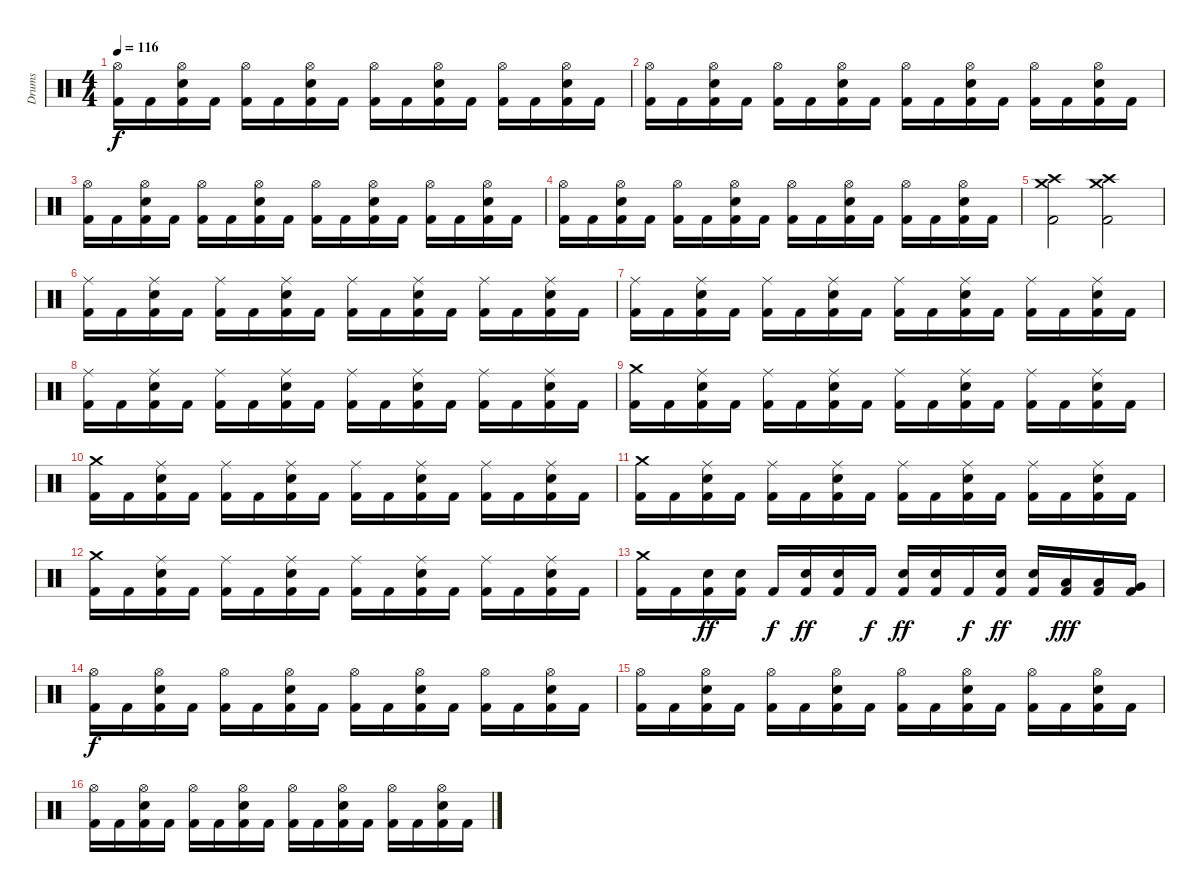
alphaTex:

\track ("Drums" "Drums") {instrument percussion}
\staff {score}
\articulation defaults
\ts (4 4)
\tempo 116
\clef neutral
\ks c
("Hi-Hat (open)" "Kick (hit) 2").16{dy f} "Kick (hit) 2".16 ("Hi-Hat (open)" "Electric Snare (hit)" "Kick (hit) 2").16 "Kick (hit) 2".16 ("Hi-Hat (open)" "Kick (hit) 2").16 "Kick (hit) 2".16 ("Hi-Hat (open)" "Electric Snare (hit)" "Kick (hit) 2").16 "Kick (hit) 2".16 ("Hi-Hat (open)" "Kick (hit) 2").16 "Kick (hit) 2".16 ("Hi-Hat (open)" "Electric Snare (hit)" "Kick (hit) 2").16 "Kick (hit) 2".16 ("Hi-Hat (open)" "Kick (hit) 2").16 "Kick (hit) 2".16 ("Hi-Hat (open)" "Electric Snare (hit)" "Kick (hit) 2").16 "Kick (hit) 2".16 |
("Hi-Hat (open)" "Kick (hit) 2").16 "Kick (hit) 2".16 ("Hi-Hat (open)" "Electric Snare (hit)" "Kick (hit) 2").16 "Kick (hit) 2".16 ("Hi-Hat (open)" "Kick (hit) 2").16 "Kick (hit) 2".16 ("Hi-Hat (open)" "Electric Snare (hit)" "Kick (hit) 2").16 "Kick (hit) 2".16 ("Hi-Hat (open)" "Kick (hit) 2").16 "Kick (hit) 2".16 ("Hi-Hat (open)" "Electric Snare (hit)" "Kick (hit) 2").16 "Kick (hit) 2".16 ("Hi-Hat (open)" "Kick (hit) 2").16 "Kick (hit) 2".16 ("Hi-Hat (open)" "Electric Snare (hit)" "Kick (hit) 2").16 "Kick (hit) 2".16 |
("Hi-Hat (open)" "Kick (hit) 2").16 "Kick (hit) 2".16 ("Hi-Hat (open)" "Electric Snare (hit)" "Kick (hit) 2").16 "Kick (hit) 2".16 ("Hi-Hat (open)" "Kick (hit) 2").16 "Kick (hit) 2".16 ("Hi-Hat (open)" "Electric Snare (hit)" "Kick (hit) 2").16 "Kick (hit) 2".16 ("Hi-Hat (open)" "Kick (hit) 2").16 "Kick (hit) 2".16 ("Hi-Hat (open)" "Electric Snare (hit)" "Kick (hit) 2").16 "Kick (hit) 2".16 ("Hi-Hat (open)" "Kick (hit) 2").16 "Kick (hit) 2".16 ("Hi-Hat (open)" "Electric Snare (hit)" "Kick (hit) 2").16 "Kick (hit) 2".16 |
("Hi-Hat (open)" "Kick (hit) 2").16 "Kick (hit) 2".16 ("Hi-Hat (open)" "Electric Snare (hit)" "Kick (hit) 2").16 "Kick (hit) 2".16 ("Hi-Hat (open)" "Kick (hit) 2").16 "Kick (hit) 2".16 ("Hi-Hat (open)" "Electric Snare (hit)" "Kick (hit) 2").16 "Kick (hit) 2".16 ("Hi-Hat (open)" "Kick (hit) 2").16 "Kick (hit) 2".16 ("Hi-Hat (open)" "Electric Snare (hit)" "Kick (hit) 2").16 "Kick (hit) 2".16 ("Hi-Hat (open)" "Kick (hit) 2").16 "Kick (hit) 2".16 ("Hi-Hat (open)" "Electric Snare (hit)" "Kick (hit) 2").16 "Kick (hit) 2".16 |
("Crash medium (hit)" "Crash high (hit)" "Kick (hit) 2").2 ("Crash medium (hit)" "Crash high (hit)" "Kick (hit) 2").2 |
("Ride (middle)" "Kick (hit) 2").16 "Kick (hit) 2".16 ("Ride (middle)" "Electric Snare (hit)" "Kick (hit) 2").16 "Kick (hit) 2".16 ("Ride (middle)" "Kick (hit) 2").16 "Kick (hit) 2".16 ("Ride (middle)" "Electric Snare (hit)" "Kick (hit) 2").16 "Kick (hit) 2".16 ("Ride (middle)" "Kick (hit) 2").16 "Kick (hit) 2".16 ("Ride (middle)" "Electric Snare (hit)" "Kick (hit) 2").16 "Kick (hit) 2".16 ("Ride (middle)" "Kick (hit) 2").16 "Kick (hit) 2".16 ("Ride (middle)" "Electric Snare (hit)" "Kick (hit) 2").16 "Kick (hit) 2".16 |
("Ride (middle)" "Kick (hit) 2").16 "Kick (hit) 2".16 ("Ride (middle)" "Electric Snare (hit)" "Kick (hit) 2").16 "Kick (hit) 2".16 ("Ride (middle)" "Kick (hit) 2").16 "Kick (hit) 2".16 ("Ride (middle)" "Electric Snare (hit)" "Kick (hit) 2").16 "Kick (hit) 2".16 ("Ride (middle)" "Kick (hit) 2").16 "Kick (hit) 2".16 ("Ride (middle)" "Electric Snare (hit)" "Kick (hit) 2").16 "Kick (hit) 2".16 ("Ride (middle)" "Kick (hit) 2").16 "Kick (hit) 2".16 ("Ride (middle)" "Electric Snare (hit)" "Kick (hit) 2").16 "Kick (hit) 2".16 |
("Ride (middle)" "Kick (hit) 2").16 "Kick (hit) 2".16 ("Ride (middle)" "Electric Snare (hit)" "Kick (hit) 2").16 "Kick (hit) 2".16 ("Ride (middle)" "Kick (hit) 2").16 "Kick (hit) 2".16 ("Ride (middle)" "Electric Snare (hit)" "Kick (hit) 2").16 "Kick (hit) 2".16 ("Ride (middle)" "Kick (hit) 2").16 "Kick (hit) 2".16 ("Ride (middle)" "Electric Snare (hit)" "Kick (hit) 2").16 "Kick (hit) 2".16 ("Ride (middle)" "Kick (hit) 2").16 "Kick (hit) 2".16 ("Ride (middle)" "Electric Snare (hit)" "Kick (hit) 2").16 "Kick (hit) 2".16 |
("Crash medium (hit)" "Kick (hit) 2").16 "Kick (hit) 2".16 ("Ride (middle)" "Electric Snare (hit)" "Kick (hit) 2").16 "Kick (hit) 2".16 ("Ride (middle)" "Kick (hit) 2").16 "Kick (hit) 2".16 ("Ride (middle)" "Electric Snare (hit)" "Kick (hit) 2").16 "Kick (hit) 2".16 ("Ride (middle)" "Kick (hit) 2").16 "Kick (hit) 2".16 ("Ride (middle)" "Electric Snare (hit)" "Kick (hit) 2").16 "Kick (hit) 2".16 ("Ride (middle)" "Kick (hit) 2").16 "Kick (hit) 2".16 ("Ride (middle)" "Electric Snare (hit)" "Kick (hit) 2").16 "Kick (hit) 2".16 |
("Crash medium (hit)" "Kick (hit) 2").16 "Kick (hit) 2".16 ("Ride (middle)" "Electric Snare (hit)" "Kick (hit) 2").16 "Kick (hit) 2".16 ("Ride (middle)" "Kick (hit) 2").16 "Kick (hit) 2".16 ("Ride (middle)" "Electric Snare (hit)" "Kick (hit) 2").16 "Kick (hit) 2".16 ("Ride (middle)" "Kick (hit) 2").16 "Kick (hit) 2".16 ("Ride (middle)" "Electric Snare (hit)" "Kick (hit) 2").16 "Kick (hit) 2".16 ("Ride (middle)" "Kick (hit) 2").16 "Kick (hit) 2".16 ("Ride (middle)" "Electric Snare (hit)" "Kick (hit) 2").16 "Kick (hit) 2".16 |
("Crash medium (hit)" "Kick (hit) 2").16 "Kick (hit) 2".16 ("Ride (middle)" "Electric Snare (hit)" "Kick (hit) 2").16 "Kick (hit) 2".16 ("Ride (middle)" "Kick (hit) 2").16 "Kick (hit) 2".16 ("Ride (middle)" "Electric Snare (hit)" "Kick (hit) 2").16 "Kick (hit) 2".16 ("Ride (middle)" "Kick (hit) 2").16 "Kick (hit) 2".16 ("Ride (middle)" "Electric Snare (hit)" "Kick (hit) 2").16 "Kick (hit) 2".16 ("Ride (middle)" "Kick (hit) 2").16 "Kick (hit) 2".16 ("Ride (middle)" "Electric Snare (hit)" "Kick (hit) 2").16 "Kick (hit) 2".16 |
("Crash medium (hit)" "Kick (hit) 2").16 "Kick (hit) 2".16 ("Ride (middle)" "Electric Snare (hit)" "Kick (hit) 2").16 "Kick (hit) 2".16 ("Ride (middle)" "Kick (hit) 2").16 "Kick (hit) 2".16 ("Ride (middle)" "Electric Snare (hit)" "Kick (hit) 2").16 "Kick (hit) 2".16 ("Ride (middle)" "Kick (hit) 2").16 "Kick (hit) 2".16 ("Ride (middle)" "Electric Snare (hit)" "Kick (hit) 2").16 "Kick (hit) 2".16 ("Ride (middle)" "Kick (hit) 2").16 "Kick (hit) 2".16 ("Ride (middle)" "Electric Snare (hit)" "Kick (hit) 2").16 "Kick (hit) 2".16 |
("Crash medium (hit)" "Kick (hit) 2").16 "Kick (hit) 2".16 ("Electric Snare (hit)" "Kick (hit) 2").16{dy ff} ("Electric Snare (hit)" "Kick (hit) 2").16 "Kick (hit) 2".16{dy f} ("Electric Snare (hit)" "Kick (hit) 2").16{dy ff} ("Electric Snare (hit)" "Kick (hit) 2").16 "Kick (hit) 2".16{dy f} ("Electric Snare (hit)" "Kick (hit) 2").16{dy ff} ("Electric Snare (hit)" "Kick (hit) 2").16 "Kick (hit) 2".16{dy f} ("Electric Snare (hit)" "Kick (hit) 2").16{dy ff} ("Electric Snare (hit)" "Kick (hit) 2").16 ("Low Tom (hit)" "Kick (hit) 2").16{dy fff} ("Low Tom (hit)" "Kick (hit) 2").16 ("Very Low Tom (hit)" "Kick (hit) 2").16 |
("Hi-Hat (open)" "Kick (hit) 2").16{dy f} "Kick (hit) 2".16 ("Hi-Hat (open)" "Electric Snare (hit)" "Kick (hit) 2").16 "Kick (hit) 2".16 ("Hi-Hat (open)" "Kick (hit) 2").16 "Kick (hit) 2".16 ("Hi-Hat (open)" "Electric Snare (hit)" "Kick (hit) 2").16 "Kick (hit) 2".16 ("Hi-Hat (open)" "Kick (hit) 2").16 "Kick (hit) 2".16 ("Hi-Hat (open)" "Electric Snare (hit)" "Kick (hit) 2").16 "Kick (hit) 2".16 ("Hi-Hat (open)" "Kick (hit) 2").16 "Kick (hit) 2".16 ("Hi-Hat (open)" "Electric Snare (hit)" "Kick (hit) 2").16 "Kick (hit) 2".16 |
("Hi-Hat (open)" "Kick (hit) 2").16 "Kick (hit) 2".16 ("Hi-Hat (open)" "Electric Snare (hit)" "Kick (hit) 2").16 "Kick (hit) 2".16 ("Hi-Hat (open)" "Kick (hit) 2").16 "Kick (hit) 2".16 ("Hi-Hat (open)" "Electric Snare (hit)" "Kick (hit) 2").16 "Kick (hit) 2".16 ("Hi-Hat (open)" "Kick (hit) 2").16 "Kick (hit) 2".16 ("Hi-Hat (open)" "Electric Snare (hit)" "Kick (hit) 2").16 "Kick (hit) 2".16 ("Hi-Hat (open)" "Kick (hit) 2").16 "Kick (hit) 2".16 ("Hi-Hat (open)" "Electric Snare (hit)" "Kick (hit) 2").16 "Kick (hit) 2".16 |
("Hi-Hat (open)" "Kick (hit) 2").16 "Kick (hit) 2".16 ("Hi-Hat (open)" "Electric Snare (hit)" "Kick (hit) 2").16 "Kick (hit) 2".16 ("Hi-Hat (open)" "Kick (hit) 2").16 "Kick (hit) 2".16 ("Hi-Hat (open)" "Electric Snare (hit)" "Kick (hit) 2").16 "Kick (hit) 2".16 ("Hi-Hat (open)" "Kick (hit) 2").16 "Kick (hit) 2".16 ("Hi-Hat (open)" "Electric Snare (hit)" "Kick (hit) 2").16 "Kick (hit) 2".16 ("Hi-Hat (open)" "Kick (hit) 2").16 "Kick (hit) 2".16 ("Hi-Hat (open)" "Electric Snare (hit)" "Kick (hit) 2").16 "Kick (hit) 2".16
